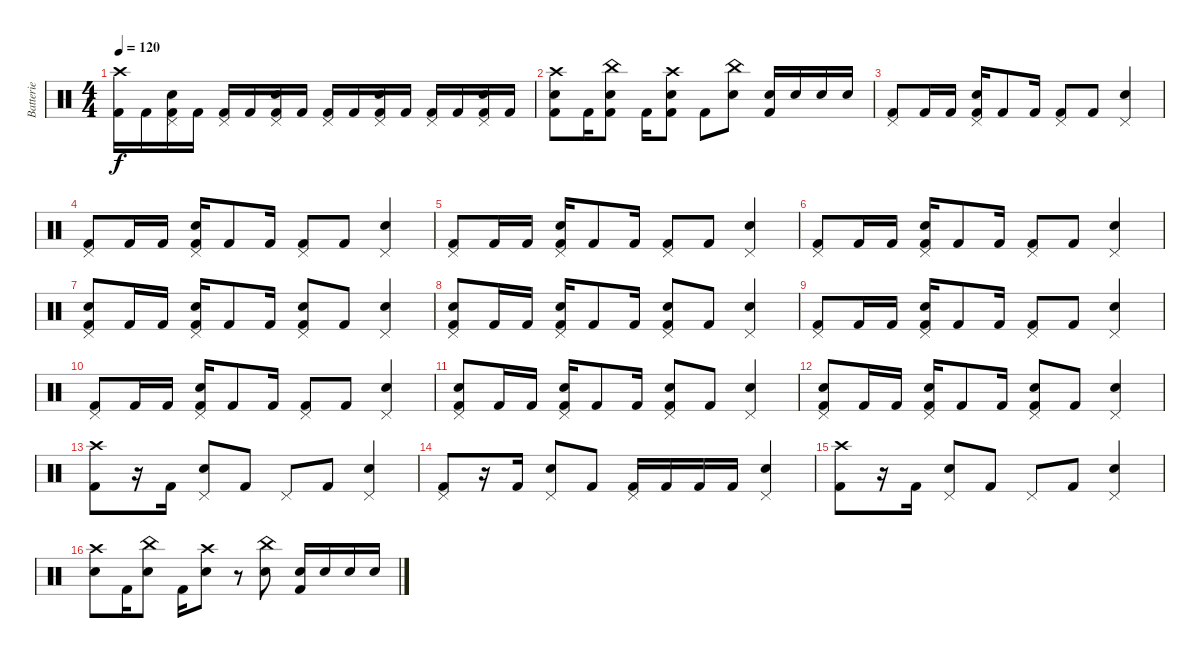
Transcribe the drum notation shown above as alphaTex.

\track ("Batterie" "Batterie") {instrument percussion}
\staff {score}
\articulation defaults
\ts (4 4)
\tempo 120
\clef neutral
\ks c
("Crash high (hit)" "Kick (hit) 2").16{dy f} "Kick (hit) 2".16 ("Snare (hit) 2" "Kick (hit) 2" "Pedal Hi-Hat (hit)").16 "Kick (hit) 2".16 ("Kick (hit) 2" "Pedal Hi-Hat (hit)").16 "Kick (hit) 2".16 ("Snare (hit) 2" "Kick (hit) 2" "Pedal Hi-Hat (hit)").16 "Kick (hit) 2".16 ("Kick (hit) 2" "Pedal Hi-Hat (hit)").16 "Kick (hit) 2".16 ("Snare (hit) 2" "Kick (hit) 2" "Pedal Hi-Hat (hit)").16 "Kick (hit) 2".16 ("Kick (hit) 2" "Pedal Hi-Hat (hit)").16 "Kick (hit) 2".16 ("Snare (hit) 2" "Kick (hit) 2" "Pedal Hi-Hat (hit)").16 "Kick (hit) 2".16 |
("Crash high (hit)" "Snare (hit) 2" "Kick (hit) 2").8 "Kick (hit) 2".16 ("China (hit)" "Snare (hit) 2" "Kick (hit) 2").8 "Kick (hit) 2".16 ("Crash high (hit)" "Snare (hit) 2" "Kick (hit) 2").8 "Kick (hit) 2".8 ("China (hit)" "Snare (hit) 2").8 ("Snare (hit) 2" "Kick (hit) 2").16 "Snare (hit) 2".16 "Snare (hit) 2".16 "Snare (hit) 2".16 |
("Kick (hit) 2" "Pedal Hi-Hat (hit)").8 "Kick (hit) 2".16 "Kick (hit) 2".16 ("Snare (hit) 2" "Kick (hit) 2" "Pedal Hi-Hat (hit)").16 "Kick (hit) 2".8 "Kick (hit) 2".16 ("Kick (hit) 2" "Pedal Hi-Hat (hit)").8 "Kick (hit) 2".8 ("Snare (hit) 2" "Pedal Hi-Hat (hit)").4 |
("Kick (hit) 2" "Pedal Hi-Hat (hit)").8 "Kick (hit) 2".16 "Kick (hit) 2".16 ("Snare (hit) 2" "Kick (hit) 2" "Pedal Hi-Hat (hit)").16 "Kick (hit) 2".8 "Kick (hit) 2".16 ("Kick (hit) 2" "Pedal Hi-Hat (hit)").8 "Kick (hit) 2".8 ("Snare (hit) 2" "Pedal Hi-Hat (hit)").4 |
("Kick (hit) 2" "Pedal Hi-Hat (hit)").8 "Kick (hit) 2".16 "Kick (hit) 2".16 ("Snare (hit) 2" "Kick (hit) 2" "Pedal Hi-Hat (hit)").16 "Kick (hit) 2".8 "Kick (hit) 2".16 ("Kick (hit) 2" "Pedal Hi-Hat (hit)").8 "Kick (hit) 2".8 ("Snare (hit) 2" "Pedal Hi-Hat (hit)").4 |
("Kick (hit) 2" "Pedal Hi-Hat (hit)").8 "Kick (hit) 2".16 "Kick (hit) 2".16 ("Snare (hit) 2" "Kick (hit) 2" "Pedal Hi-Hat (hit)").16 "Kick (hit) 2".8 "Kick (hit) 2".16 ("Kick (hit) 2" "Pedal Hi-Hat (hit)").8 "Kick (hit) 2".8 ("Snare (hit) 2" "Pedal Hi-Hat (hit)").4 |
("Snare (hit) 2" "Kick (hit) 2" "Pedal Hi-Hat (hit)").8 "Kick (hit) 2".16 "Kick (hit) 2".16 ("Snare (hit) 2" "Kick (hit) 2" "Pedal Hi-Hat (hit)").16 "Kick (hit) 2".8 "Kick (hit) 2".16 ("Snare (hit) 2" "Kick (hit) 2" "Pedal Hi-Hat (hit)").8 "Kick (hit) 2".8 ("Snare (hit) 2" "Pedal Hi-Hat (hit)").4 |
("Snare (hit) 2" "Kick (hit) 2" "Pedal Hi-Hat (hit)").8 "Kick (hit) 2".16 "Kick (hit) 2".16 ("Snare (hit) 2" "Kick (hit) 2" "Pedal Hi-Hat (hit)").16 "Kick (hit) 2".8 "Kick (hit) 2".16 ("Snare (hit) 2" "Kick (hit) 2" "Pedal Hi-Hat (hit)").8 "Kick (hit) 2".8 ("Snare (hit) 2" "Pedal Hi-Hat (hit)").4 |
("Kick (hit) 2" "Pedal Hi-Hat (hit)").8 "Kick (hit) 2".16 "Kick (hit) 2".16 ("Snare (hit) 2" "Kick (hit) 2" "Pedal Hi-Hat (hit)").16 "Kick (hit) 2".8 "Kick (hit) 2".16 ("Kick (hit) 2" "Pedal Hi-Hat (hit)").8 "Kick (hit) 2".8 ("Snare (hit) 2" "Pedal Hi-Hat (hit)").4 |
("Kick (hit) 2" "Pedal Hi-Hat (hit)").8 "Kick (hit) 2".16 "Kick (hit) 2".16 ("Snare (hit) 2" "Kick (hit) 2" "Pedal Hi-Hat (hit)").16 "Kick (hit) 2".8 "Kick (hit) 2".16 ("Kick (hit) 2" "Pedal Hi-Hat (hit)").8 "Kick (hit) 2".8 ("Snare (hit) 2" "Pedal Hi-Hat (hit)").4 |
("Snare (hit) 2" "Kick (hit) 2" "Pedal Hi-Hat (hit)").8 "Kick (hit) 2".16 "Kick (hit) 2".16 ("Snare (hit) 2" "Kick (hit) 2" "Pedal Hi-Hat (hit)").16 "Kick (hit) 2".8 "Kick (hit) 2".16 ("Snare (hit) 2" "Kick (hit) 2" "Pedal Hi-Hat (hit)").8 "Kick (hit) 2".8 ("Snare (hit) 2" "Pedal Hi-Hat (hit)").4 |
("Snare (hit) 2" "Kick (hit) 2" "Pedal Hi-Hat (hit)").8 "Kick (hit) 2".16 "Kick (hit) 2".16 ("Snare (hit) 2" "Kick (hit) 2" "Pedal Hi-Hat (hit)").16 "Kick (hit) 2".8 "Kick (hit) 2".16 ("Snare (hit) 2" "Kick (hit) 2" "Pedal Hi-Hat (hit)").8 "Kick (hit) 2".8 ("Snare (hit) 2" "Pedal Hi-Hat (hit)").4 |
("Crash high (hit)" "Kick (hit) 2").8 r.16 "Kick (hit) 2".16 ("Snare (hit) 2" "Pedal Hi-Hat (hit)").8 "Kick (hit) 2".8 "Pedal Hi-Hat (hit)".8 "Kick (hit) 2".8 ("Snare (hit) 2" "Pedal Hi-Hat (hit)").4 |
("Kick (hit) 2" "Pedal Hi-Hat (hit)").8 r.16 "Kick (hit) 2".16 ("Snare (hit) 2" "Pedal Hi-Hat (hit)").8 "Kick (hit) 2".8 ("Kick (hit) 2" "Pedal Hi-Hat (hit)").16 "Kick (hit) 2".16 "Kick (hit) 2".16 "Kick (hit) 2".16 ("Snare (hit) 2" "Pedal Hi-Hat (hit)").4 |
("Crash high (hit)" "Kick (hit) 2").8 r.16 "Kick (hit) 2".16 ("Snare (hit) 2" "Pedal Hi-Hat (hit)").8 "Kick (hit) 2".8 "Pedal Hi-Hat (hit)".8 "Kick (hit) 2".8 ("Snare (hit) 2" "Pedal Hi-Hat (hit)").4 |
("Crash high (hit)" "Snare (hit) 2").8 "Kick (hit) 2".16 ("China (hit)" "Snare (hit) 2").8 "Kick (hit) 2".16 ("Crash high (hit)" "Snare (hit) 2").8 r.8 ("China (hit)" "Snare (hit) 2").8 ("Snare (hit) 2" "Kick (hit) 2").16 "Snare (hit) 2".16 "Snare (hit) 2".16 "Snare (hit) 2".16
